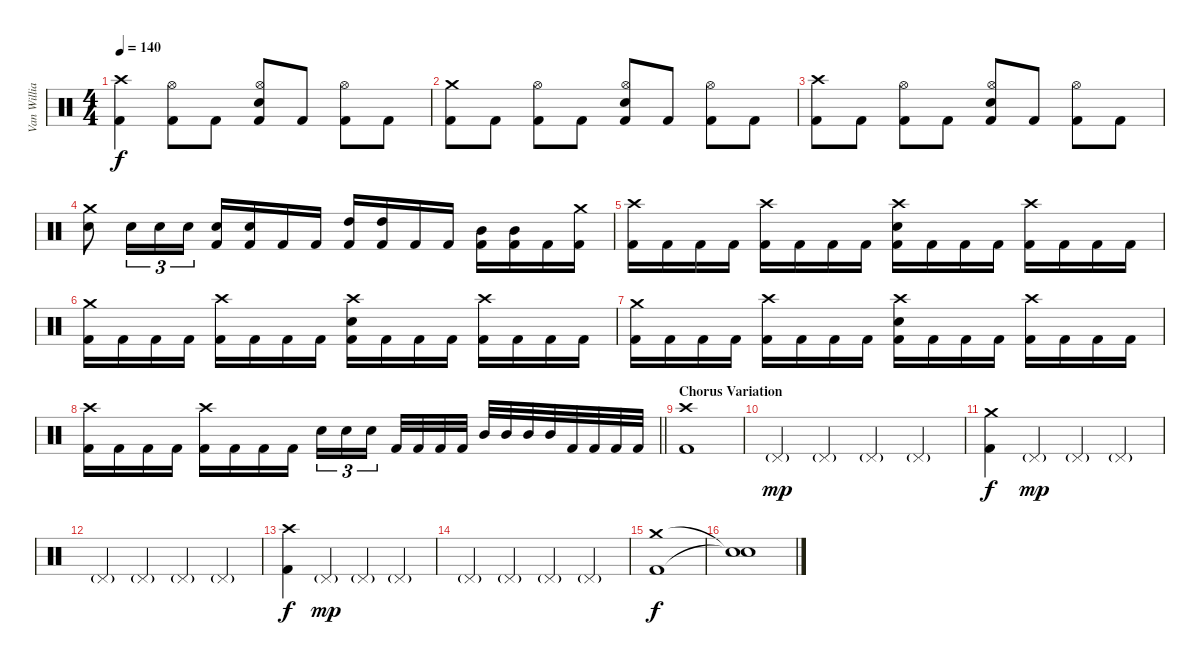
\track ("Van Williams" "Van Willia") {instrument percussion}
\staff {score}
\articulation defaults
\ts (4 4)
\tempo 140
\clef neutral
\ks c
("Crash high (hit)" "Kick (hit) 2").4{dy f} ("Hi-Hat (open)" "Kick (hit) 2").8 "Kick (hit) 2".8 ("Hi-Hat (open)" "Electric Snare (hit)" "Kick (hit) 2").8 "Kick (hit) 2".8 ("Hi-Hat (open)" "Kick (hit) 2").8 "Kick (hit) 2".8 |
("Crash medium (hit)" "Kick (hit) 2").8 "Kick (hit) 2".8 ("Hi-Hat (open)" "Kick (hit) 2").8 "Kick (hit) 2".8 ("Hi-Hat (open)" "Electric Snare (hit)" "Kick (hit) 2").8 "Kick (hit) 2".8 ("Hi-Hat (open)" "Kick (hit) 2").8 "Kick (hit) 2".8 |
("Crash high (hit)" "Kick (hit) 2").8 "Kick (hit) 2".8 ("Hi-Hat (open)" "Kick (hit) 2").8 "Kick (hit) 2".8 ("Hi-Hat (open)" "Electric Snare (hit)" "Kick (hit) 2").8 "Kick (hit) 2".8 ("Hi-Hat (open)" "Kick (hit) 2").8 "Kick (hit) 2".8 |
("Crash medium (hit)" "Electric Snare (hit)").8 "Electric Snare (hit)".16{tu (3 2)} "Electric Snare (hit)".16{tu (3 2)} "Electric Snare (hit)".16{tu (3 2)} ("Electric Snare (hit)" "Kick (hit) 2").16 ("Electric Snare (hit)" "Kick (hit) 2").16 "Kick (hit) 2".16 "Kick (hit) 2".16 ("High Tom (hit)" "Kick (hit) 2").16 ("High Tom (hit)" "Kick (hit) 2").16 "Kick (hit) 2".16 "Kick (hit) 2".16 ("Mid Tom (hit)" "Kick (hit) 2").16 ("Mid Tom (hit)" "Kick (hit) 2").16 "Kick (hit) 2".16 ("Crash medium (hit)" "Kick (hit) 2").16 |
("Crash high (hit)" "Kick (hit) 2").16 "Kick (hit) 2".16 "Kick (hit) 2".16 "Kick (hit) 2".16 ("Crash high (hit)" "Kick (hit) 2").16 "Kick (hit) 2".16 "Kick (hit) 2".16 "Kick (hit) 2".16 ("Crash high (hit)" "Electric Snare (hit)" "Kick (hit) 2").16 "Kick (hit) 2".16 "Kick (hit) 2".16 "Kick (hit) 2".16 ("Crash high (hit)" "Kick (hit) 2").16 "Kick (hit) 2".16 "Kick (hit) 2".16 "Kick (hit) 2".16 |
("Crash medium (hit)" "Kick (hit) 2").16 "Kick (hit) 2".16 "Kick (hit) 2".16 "Kick (hit) 2".16 ("Crash high (hit)" "Kick (hit) 2").16 "Kick (hit) 2".16 "Kick (hit) 2".16 "Kick (hit) 2".16 ("Crash high (hit)" "Electric Snare (hit)" "Kick (hit) 2").16 "Kick (hit) 2".16 "Kick (hit) 2".16 "Kick (hit) 2".16 ("Crash high (hit)" "Kick (hit) 2").16 "Kick (hit) 2".16 "Kick (hit) 2".16 "Kick (hit) 2".16 |
("Crash medium (hit)" "Kick (hit) 2").16 "Kick (hit) 2".16 "Kick (hit) 2".16 "Kick (hit) 2".16 ("Crash high (hit)" "Kick (hit) 2").16 "Kick (hit) 2".16 "Kick (hit) 2".16 "Kick (hit) 2".16 ("Crash high (hit)" "Electric Snare (hit)" "Kick (hit) 2").16 "Kick (hit) 2".16 "Kick (hit) 2".16 "Kick (hit) 2".16 ("Crash high (hit)" "Kick (hit) 2").16 "Kick (hit) 2".16 "Kick (hit) 2".16 "Kick (hit) 2".16 |
\barLineRight lightlight
("Crash high (hit)" "Kick (hit) 2").16 "Kick (hit) 2".16 "Kick (hit) 2".16 "Kick (hit) 2".16 ("Crash high (hit)" "Kick (hit) 2").16 "Kick (hit) 2".16 "Kick (hit) 2".16 "Kick (hit) 2".16 "Electric Snare (hit)".16{tu (3 2)} "Electric Snare (hit)".16{tu (3 2)} "Electric Snare (hit)".16{tu (3 2) beam splitsecondary} "Kick (hit) 2".32 "Kick (hit) 2".32 "Kick (hit) 2".32 "Kick (hit) 2".32 "Mid Tom (hit)".32 "Mid Tom (hit)".32 "Mid Tom (hit)".32 "Mid Tom (hit)".32 "Kick (hit) 2".32 "Kick (hit) 2".32 "Kick (hit) 2".32 "Kick (hit) 2".32 |
\section ("" "Chorus Variation")
("Crash high (hit)" "Kick (hit) 2").1 |
"Pedal Hi-Hat (hit)"{g}.4{dy mp} "Pedal Hi-Hat (hit)"{g}.4 "Pedal Hi-Hat (hit)"{g}.4 "Pedal Hi-Hat (hit)"{g}.4 |
("Crash medium (hit)" "Kick (hit) 2").4{dy f} "Pedal Hi-Hat (hit)"{g}.4{dy mp} "Pedal Hi-Hat (hit)"{g}.4 "Pedal Hi-Hat (hit)"{g}.4 |
"Pedal Hi-Hat (hit)"{g}.4 "Pedal Hi-Hat (hit)"{g}.4 "Pedal Hi-Hat (hit)"{g}.4 "Pedal Hi-Hat (hit)"{g}.4 |
("Crash high (hit)" "Kick (hit) 2").4{dy f} "Pedal Hi-Hat (hit)"{g}.4{dy mp} "Pedal Hi-Hat (hit)"{g}.4 "Pedal Hi-Hat (hit)"{g}.4 |
"Pedal Hi-Hat (hit)"{g}.4 "Pedal Hi-Hat (hit)"{g}.4 "Pedal Hi-Hat (hit)"{g}.4 "Pedal Hi-Hat (hit)"{g}.4 |
("Crash medium (hit)" "Kick (hit) 2").1{dy f} |
("Snare (hit)"{t} "Snare (hit)"{t}).1
